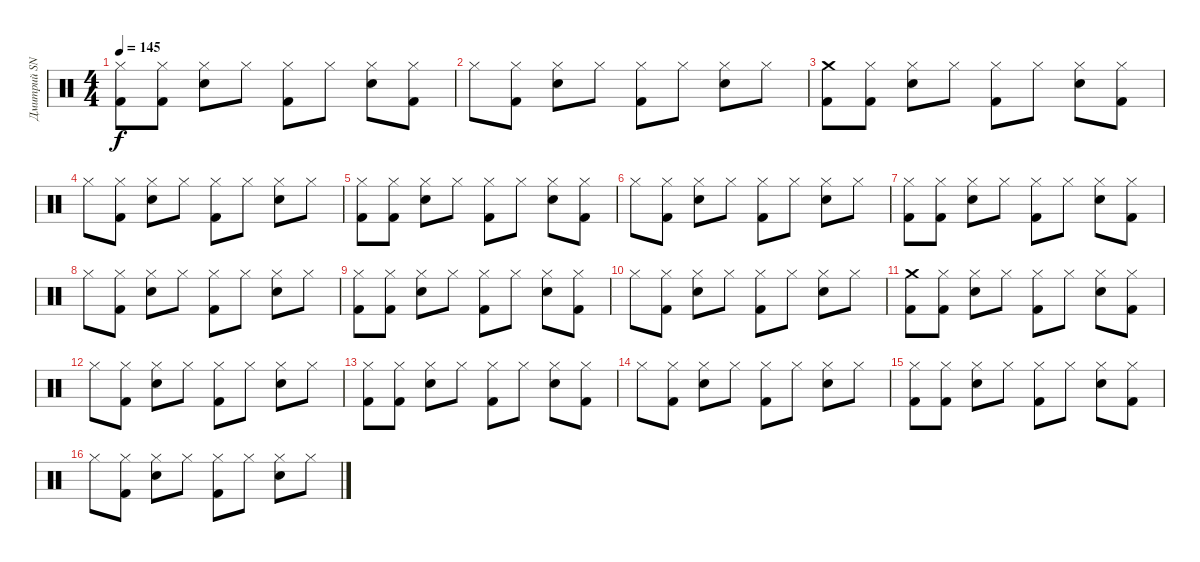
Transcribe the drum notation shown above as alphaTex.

\track ("Дмитрий SNAKE Хакимов" "Дмитрий SN") {instrument percussion}
\staff {score}
\articulation defaults
\ts (4 4)
\tempo 145
\clef neutral
\ks c
("Hi-Hat (closed)" "Kick (hit) 2").8{dy f} ("Hi-Hat (closed)" "Kick (hit) 2").8 ("Hi-Hat (closed)" "Snare (hit) 2").8 "Hi-Hat (closed)".8 ("Hi-Hat (closed)" "Kick (hit) 2").8 "Hi-Hat (closed)".8 ("Hi-Hat (closed)" "Snare (hit) 2").8 ("Hi-Hat (closed)" "Kick (hit) 2").8 |
"Hi-Hat (closed)".8 ("Hi-Hat (closed)" "Kick (hit) 2").8 ("Hi-Hat (closed)" "Snare (hit) 2").8 "Hi-Hat (closed)".8 ("Hi-Hat (closed)" "Kick (hit) 2").8 "Hi-Hat (closed)".8 ("Hi-Hat (closed)" "Snare (hit) 2").8 "Hi-Hat (closed)".8 |
("Crash medium (hit)" "Kick (hit) 2").8 ("Hi-Hat (closed)" "Kick (hit) 2").8 ("Hi-Hat (closed)" "Snare (hit) 2").8 "Hi-Hat (closed)".8 ("Hi-Hat (closed)" "Kick (hit) 2").8 "Hi-Hat (closed)".8 ("Hi-Hat (closed)" "Snare (hit) 2").8 ("Hi-Hat (closed)" "Kick (hit) 2").8 |
"Hi-Hat (closed)".8 ("Hi-Hat (closed)" "Kick (hit) 2").8 ("Hi-Hat (closed)" "Snare (hit) 2").8 "Hi-Hat (closed)".8 ("Hi-Hat (closed)" "Kick (hit) 2").8 "Hi-Hat (closed)".8 ("Hi-Hat (closed)" "Snare (hit) 2").8 "Hi-Hat (closed)".8 |
("Hi-Hat (closed)" "Kick (hit) 2").8 ("Hi-Hat (closed)" "Kick (hit) 2").8 ("Hi-Hat (closed)" "Snare (hit) 2").8 "Hi-Hat (closed)".8 ("Hi-Hat (closed)" "Kick (hit) 2").8 "Hi-Hat (closed)".8 ("Hi-Hat (closed)" "Snare (hit) 2").8 ("Hi-Hat (closed)" "Kick (hit) 2").8 |
"Hi-Hat (closed)".8 ("Hi-Hat (closed)" "Kick (hit) 2").8 ("Hi-Hat (closed)" "Snare (hit) 2").8 "Hi-Hat (closed)".8 ("Hi-Hat (closed)" "Kick (hit) 2").8 "Hi-Hat (closed)".8 ("Hi-Hat (closed)" "Snare (hit) 2").8 "Hi-Hat (closed)".8 |
("Hi-Hat (closed)" "Kick (hit) 2").8 ("Hi-Hat (closed)" "Kick (hit) 2").8 ("Hi-Hat (closed)" "Snare (hit) 2").8 "Hi-Hat (closed)".8 ("Hi-Hat (closed)" "Kick (hit) 2").8 "Hi-Hat (closed)".8 ("Hi-Hat (closed)" "Snare (hit) 2").8 ("Hi-Hat (closed)" "Kick (hit) 2").8 |
"Hi-Hat (closed)".8 ("Hi-Hat (closed)" "Kick (hit) 2").8 ("Hi-Hat (closed)" "Snare (hit) 2").8 "Hi-Hat (closed)".8 ("Hi-Hat (closed)" "Kick (hit) 2").8 "Hi-Hat (closed)".8 ("Hi-Hat (closed)" "Snare (hit) 2").8 "Hi-Hat (closed)".8 |
("Hi-Hat (closed)" "Kick (hit) 2").8 ("Hi-Hat (closed)" "Kick (hit) 2").8 ("Hi-Hat (closed)" "Snare (hit) 2").8 "Hi-Hat (closed)".8 ("Hi-Hat (closed)" "Kick (hit) 2").8 "Hi-Hat (closed)".8 ("Hi-Hat (closed)" "Snare (hit) 2").8 ("Hi-Hat (closed)" "Kick (hit) 2").8 |
"Hi-Hat (closed)".8 ("Hi-Hat (closed)" "Kick (hit) 2").8 ("Hi-Hat (closed)" "Snare (hit) 2").8 "Hi-Hat (closed)".8 ("Hi-Hat (closed)" "Kick (hit) 2").8 "Hi-Hat (closed)".8 ("Hi-Hat (closed)" "Snare (hit) 2").8 "Hi-Hat (closed)".8 |
("Crash medium (hit)" "Kick (hit) 2").8 ("Hi-Hat (closed)" "Kick (hit) 2").8 ("Hi-Hat (closed)" "Snare (hit) 2").8 "Hi-Hat (closed)".8 ("Hi-Hat (closed)" "Kick (hit) 2").8 "Hi-Hat (closed)".8 ("Hi-Hat (closed)" "Snare (hit) 2").8 ("Hi-Hat (closed)" "Kick (hit) 2").8 |
"Hi-Hat (closed)".8 ("Hi-Hat (closed)" "Kick (hit) 2").8 ("Hi-Hat (closed)" "Snare (hit) 2").8 "Hi-Hat (closed)".8 ("Hi-Hat (closed)" "Kick (hit) 2").8 "Hi-Hat (closed)".8 ("Hi-Hat (closed)" "Snare (hit) 2").8 "Hi-Hat (closed)".8 |
("Hi-Hat (closed)" "Kick (hit) 2").8 ("Hi-Hat (closed)" "Kick (hit) 2").8 ("Hi-Hat (closed)" "Snare (hit) 2").8 "Hi-Hat (closed)".8 ("Hi-Hat (closed)" "Kick (hit) 2").8 "Hi-Hat (closed)".8 ("Hi-Hat (closed)" "Snare (hit) 2").8 ("Hi-Hat (closed)" "Kick (hit) 2").8 |
"Hi-Hat (closed)".8 ("Hi-Hat (closed)" "Kick (hit) 2").8 ("Hi-Hat (closed)" "Snare (hit) 2").8 "Hi-Hat (closed)".8 ("Hi-Hat (closed)" "Kick (hit) 2").8 "Hi-Hat (closed)".8 ("Hi-Hat (closed)" "Snare (hit) 2").8 "Hi-Hat (closed)".8 |
("Hi-Hat (closed)" "Kick (hit) 2").8 ("Hi-Hat (closed)" "Kick (hit) 2").8 ("Hi-Hat (closed)" "Snare (hit) 2").8 "Hi-Hat (closed)".8 ("Hi-Hat (closed)" "Kick (hit) 2").8 "Hi-Hat (closed)".8 ("Hi-Hat (closed)" "Snare (hit) 2").8 ("Hi-Hat (closed)" "Kick (hit) 2").8 |
"Hi-Hat (closed)".8 ("Hi-Hat (closed)" "Kick (hit) 2").8 ("Hi-Hat (closed)" "Snare (hit) 2").8 "Hi-Hat (closed)".8 ("Hi-Hat (closed)" "Kick (hit) 2").8 "Hi-Hat (closed)".8 ("Hi-Hat (closed)" "Snare (hit) 2").8 "Hi-Hat (closed)".8
